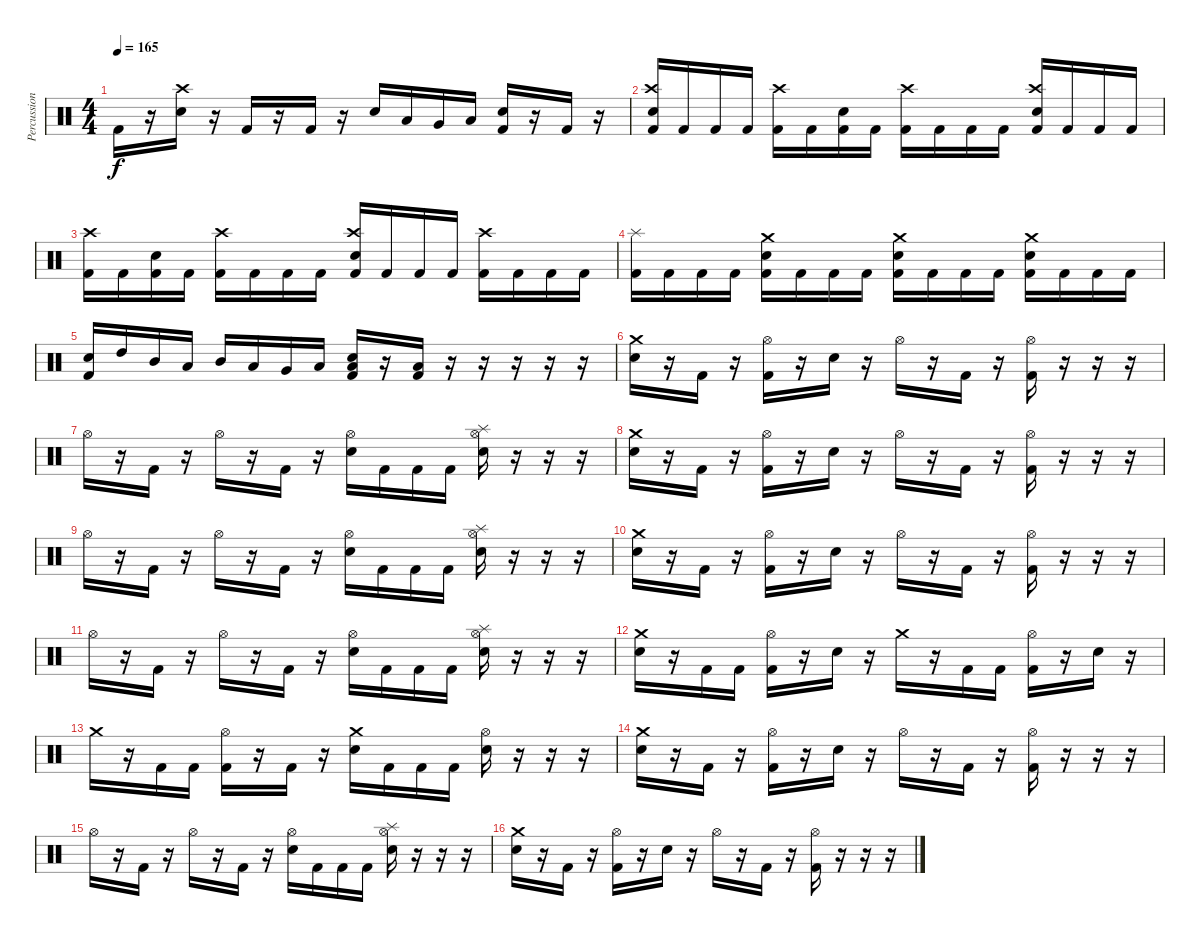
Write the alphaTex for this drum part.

\track ("Percussion" "Percussion") {instrument percussion}
\staff {score}
\articulation defaults
\ts (4 4)
\tempo 165
\clef neutral
\ks c "Kick (hit) 2".16{dy f}
r.16 ("Crash high (hit)" "Electric Snare (hit)").16 r.16 "Kick (hit) 2".16 r.16 "Kick (hit) 2".16 r.16 "Electric Snare (hit)".16 "Low Tom (hit)".16 "Very Low Tom (hit)".16 "Low Floor Tom (hit)".16 ("Electric Snare (hit)" "Kick (hit) 2").16 r.16 "Kick (hit) 2".16 r.16 |
("Crash high (hit)" "Electric Snare (hit)" "Kick (hit) 2").16 "Kick (hit) 2".16 "Kick (hit) 2".16 "Kick (hit) 2".16 ("Crash high (hit)" "Kick (hit) 2").16 "Kick (hit) 2".16 ("Electric Snare (hit)" "Kick (hit) 2").16 "Kick (hit) 2".16 ("Crash high (hit)" "Kick (hit) 2").16 "Kick (hit) 2".16 "Kick (hit) 2".16 "Kick (hit) 2".16 ("Crash high (hit)" "Electric Snare (hit)" "Kick (hit) 2").16 "Kick (hit) 2".16 "Kick (hit) 2".16 "Kick (hit) 2".16 |
("Crash high (hit)" "Kick (hit) 2").16 "Kick (hit) 2".16 ("Electric Snare (hit)" "Kick (hit) 2").16 "Kick (hit) 2".16 ("Crash high (hit)" "Kick (hit) 2").16 "Kick (hit) 2".16 "Kick (hit) 2".16 "Kick (hit) 2".16 ("Crash high (hit)" "Electric Snare (hit)" "Kick (hit) 2").16 "Kick (hit) 2".16 "Kick (hit) 2".16 "Kick (hit) 2".16 ("Crash high (hit)" "Kick (hit) 2").16 "Kick (hit) 2".16 "Kick (hit) 2".16 "Kick (hit) 2".16 |
("Splash (hit)" "Kick (hit) 2").16 "Kick (hit) 2".16 "Kick (hit) 2".16 "Kick (hit) 2".16 ("Crash medium (hit)" "Electric Snare (hit)" "Kick (hit) 2").16 "Kick (hit) 2".16 "Kick (hit) 2".16 "Kick (hit) 2".16 ("Crash medium (hit)" "Electric Snare (hit)" "Kick (hit) 2").16 "Kick (hit) 2".16 "Kick (hit) 2".16 "Kick (hit) 2".16 ("Crash medium (hit)" "Electric Snare (hit)" "Kick (hit) 2").16 "Kick (hit) 2".16 "Kick (hit) 2".16 "Kick (hit) 2".16 |
("Electric Snare (hit)" "Kick (hit) 2").16 "High Tom (hit)".16 "Mid Tom (hit)".16 "Low Tom (hit)".16 "Mid Tom (hit)".16 "Low Tom (hit)".16 "Very Low Tom (hit)".16 "Low Floor Tom (hit)".16 ("Electric Snare (hit)" "Low Floor Tom (hit)" "Kick (hit) 2").16 r.16 ("Low Floor Tom (hit)" "Kick (hit) 2").16 r.16 r.16 r.16 r.16 r.16 |
("Crash medium (hit)" "Electric Snare (hit)").16 r.16 "Kick (hit) 2".16 r.16 ("Hi-Hat (open)" "Kick (hit) 2").16 r.16 "Electric Snare (hit)".16 r.16 "Hi-Hat (open)".16 r.16 "Kick (hit) 2".16 r.16 ("Hi-Hat (open)" "Kick (hit) 2").16 r.16 r.16 r.16 |
"Hi-Hat (open)".16 r.16 "Kick (hit) 2".16 r.16 "Hi-Hat (open)".16 r.16 "Kick (hit) 2".16 r.16 ("Hi-Hat (open)" "Electric Snare (hit)").16 "Kick (hit) 2".16 "Kick (hit) 2".16 "Kick (hit) 2".16 ("Hi-Hat (open)" "Splash (hit)" "Electric Snare (hit)").16 r.16 r.16 r.16 |
("Crash medium (hit)" "Electric Snare (hit)").16 r.16 "Kick (hit) 2".16 r.16 ("Hi-Hat (open)" "Kick (hit) 2").16 r.16 "Electric Snare (hit)".16 r.16 "Hi-Hat (open)".16 r.16 "Kick (hit) 2".16 r.16 ("Hi-Hat (open)" "Kick (hit) 2").16 r.16 r.16 r.16 |
"Hi-Hat (open)".16 r.16 "Kick (hit) 2".16 r.16 "Hi-Hat (open)".16 r.16 "Kick (hit) 2".16 r.16 ("Hi-Hat (open)" "Electric Snare (hit)").16 "Kick (hit) 2".16 "Kick (hit) 2".16 "Kick (hit) 2".16 ("Hi-Hat (open)" "Splash (hit)" "Electric Snare (hit)").16 r.16 r.16 r.16 |
("Crash medium (hit)" "Electric Snare (hit)").16 r.16 "Kick (hit) 2".16 r.16 ("Hi-Hat (open)" "Kick (hit) 2").16 r.16 "Electric Snare (hit)".16 r.16 "Hi-Hat (open)".16 r.16 "Kick (hit) 2".16 r.16 ("Hi-Hat (open)" "Kick (hit) 2").16 r.16 r.16 r.16 |
"Hi-Hat (open)".16 r.16 "Kick (hit) 2".16 r.16 "Hi-Hat (open)".16 r.16 "Kick (hit) 2".16 r.16 ("Hi-Hat (open)" "Electric Snare (hit)").16 "Kick (hit) 2".16 "Kick (hit) 2".16 "Kick (hit) 2".16 ("Hi-Hat (open)" "Splash (hit)" "Electric Snare (hit)").16 r.16 r.16 r.16 |
("Crash medium (hit)" "Electric Snare (hit)").16 r.16 "Kick (hit) 2".16 "Kick (hit) 2".16 ("Hi-Hat (open)" "Kick (hit) 2").16 r.16 "Electric Snare (hit)".16 r.16 "Crash medium (hit)".16 r.16 "Kick (hit) 2".16 "Kick (hit) 2".16 ("Hi-Hat (open)" "Kick (hit) 2").16 r.16 "Electric Snare (hit)".16 r.16 |
"Crash medium (hit)".16 r.16 "Kick (hit) 2".16 "Kick (hit) 2".16 ("Hi-Hat (open)" "Kick (hit) 2").16 r.16 "Kick (hit) 2".16 r.16 ("Crash medium (hit)" "Electric Snare (hit)").16 "Kick (hit) 2".16 "Kick (hit) 2".16 "Kick (hit) 2".16 ("Hi-Hat (open)" "Electric Snare (hit)").16 r.16 r.16 r.16 |
("Crash medium (hit)" "Electric Snare (hit)").16 r.16 "Kick (hit) 2".16 r.16 ("Hi-Hat (open)" "Kick (hit) 2").16 r.16 "Electric Snare (hit)".16 r.16 "Hi-Hat (open)".16 r.16 "Kick (hit) 2".16 r.16 ("Hi-Hat (open)" "Kick (hit) 2").16 r.16 r.16 r.16 |
"Hi-Hat (open)".16 r.16 "Kick (hit) 2".16 r.16 "Hi-Hat (open)".16 r.16 "Kick (hit) 2".16 r.16 ("Hi-Hat (open)" "Electric Snare (hit)").16 "Kick (hit) 2".16 "Kick (hit) 2".16 "Kick (hit) 2".16 ("Hi-Hat (open)" "Splash (hit)" "Electric Snare (hit)").16 r.16 r.16 r.16 |
("Crash medium (hit)" "Electric Snare (hit)").16 r.16 "Kick (hit) 2".16 r.16 ("Hi-Hat (open)" "Kick (hit) 2").16 r.16 "Electric Snare (hit)".16 r.16 "Hi-Hat (open)".16 r.16 "Kick (hit) 2".16 r.16 ("Hi-Hat (open)" "Kick (hit) 2").16 r.16 r.16 r.16
